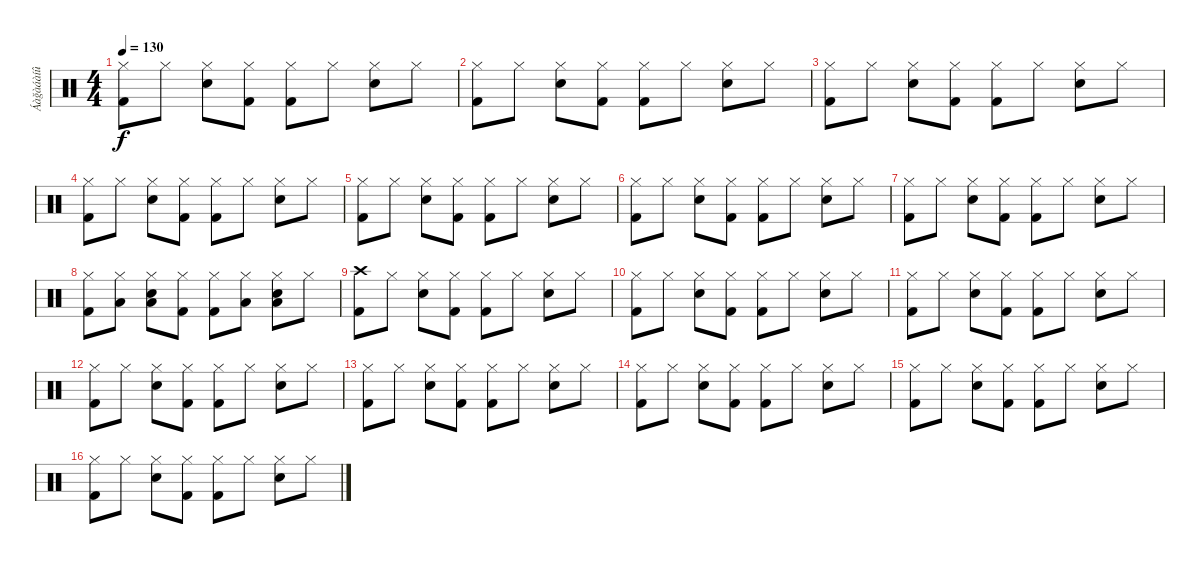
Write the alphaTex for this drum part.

\track ("Áàğàáàíû" "Áàğàáàíû") {instrument percussion}
\staff {score}
\articulation defaults
\ts (4 4)
\tempo 130
\clef neutral
\ks c
("Hi-Hat (closed)" "Kick (hit) 2").8{dy f} "Hi-Hat (closed)".8 ("Hi-Hat (closed)" "Snare (hit) 2").8 ("Hi-Hat (closed)" "Kick (hit) 2").8 ("Hi-Hat (closed)" "Kick (hit) 2").8 "Hi-Hat (closed)".8 ("Hi-Hat (closed)" "Snare (hit) 2").8 "Hi-Hat (closed)".8 |
("Hi-Hat (closed)" "Kick (hit) 2").8 "Hi-Hat (closed)".8 ("Hi-Hat (closed)" "Snare (hit) 2").8 ("Hi-Hat (closed)" "Kick (hit) 2").8 ("Hi-Hat (closed)" "Kick (hit) 2").8 "Hi-Hat (closed)".8 ("Hi-Hat (closed)" "Snare (hit) 2").8 "Hi-Hat (closed)".8 |
("Hi-Hat (closed)" "Kick (hit) 2").8 "Hi-Hat (closed)".8 ("Hi-Hat (closed)" "Snare (hit) 2").8 ("Hi-Hat (closed)" "Kick (hit) 2").8 ("Hi-Hat (closed)" "Kick (hit) 2").8 "Hi-Hat (closed)".8 ("Hi-Hat (closed)" "Snare (hit) 2").8 "Hi-Hat (closed)".8 |
("Hi-Hat (closed)" "Kick (hit) 2").8 "Hi-Hat (closed)".8 ("Hi-Hat (closed)" "Snare (hit) 2").8 ("Hi-Hat (closed)" "Kick (hit) 2").8 ("Hi-Hat (closed)" "Kick (hit) 2").8 "Hi-Hat (closed)".8 ("Hi-Hat (closed)" "Snare (hit) 2").8 "Hi-Hat (closed)".8 |
("Hi-Hat (closed)" "Kick (hit) 2").8 "Hi-Hat (closed)".8 ("Hi-Hat (closed)" "Snare (hit) 2").8 ("Hi-Hat (closed)" "Kick (hit) 2").8 ("Hi-Hat (closed)" "Kick (hit) 2").8 "Hi-Hat (closed)".8 ("Hi-Hat (closed)" "Snare (hit) 2").8 "Hi-Hat (closed)".8 |
("Hi-Hat (closed)" "Kick (hit) 2").8 "Hi-Hat (closed)".8 ("Hi-Hat (closed)" "Snare (hit) 2").8 ("Hi-Hat (closed)" "Kick (hit) 2").8 ("Hi-Hat (closed)" "Kick (hit) 2").8 "Hi-Hat (closed)".8 ("Hi-Hat (closed)" "Snare (hit) 2").8 "Hi-Hat (closed)".8 |
("Hi-Hat (closed)" "Kick (hit) 2").8 "Hi-Hat (closed)".8 ("Hi-Hat (closed)" "Snare (hit) 2").8 ("Hi-Hat (closed)" "Kick (hit) 2").8 ("Hi-Hat (closed)" "Kick (hit) 2").8 "Hi-Hat (closed)".8 ("Hi-Hat (closed)" "Snare (hit) 2").8 "Hi-Hat (closed)".8 |
("Hi-Hat (closed)" "Kick (hit) 2").8 ("Hi-Hat (closed)" "Low Tom (hit)").8 ("Hi-Hat (closed)" "Snare (hit) 2" "Low Tom (hit)").8 ("Hi-Hat (closed)" "Kick (hit) 2").8 ("Hi-Hat (closed)" "Kick (hit) 2").8 ("Hi-Hat (closed)" "Low Tom (hit)").8 ("Hi-Hat (closed)" "Snare (hit) 2" "Low Tom (hit)").8 "Hi-Hat (closed)".8 |
("Crash high (hit)" "Kick (hit) 2").8 "Hi-Hat (closed)".8 ("Hi-Hat (closed)" "Snare (hit) 2").8 ("Hi-Hat (closed)" "Kick (hit) 2").8 ("Hi-Hat (closed)" "Kick (hit) 2").8 "Hi-Hat (closed)".8 ("Hi-Hat (closed)" "Snare (hit) 2").8 "Hi-Hat (closed)".8 |
("Hi-Hat (closed)" "Kick (hit) 2").8 "Hi-Hat (closed)".8 ("Hi-Hat (closed)" "Snare (hit) 2").8 ("Hi-Hat (closed)" "Kick (hit) 2").8 ("Hi-Hat (closed)" "Kick (hit) 2").8 "Hi-Hat (closed)".8 ("Hi-Hat (closed)" "Snare (hit) 2").8 "Hi-Hat (closed)".8 |
("Hi-Hat (closed)" "Kick (hit) 2").8 "Hi-Hat (closed)".8 ("Hi-Hat (closed)" "Snare (hit) 2").8 ("Hi-Hat (closed)" "Kick (hit) 2").8 ("Hi-Hat (closed)" "Kick (hit) 2").8 "Hi-Hat (closed)".8 ("Hi-Hat (closed)" "Snare (hit) 2").8 "Hi-Hat (closed)".8 |
("Hi-Hat (closed)" "Kick (hit) 2").8 "Hi-Hat (closed)".8 ("Hi-Hat (closed)" "Snare (hit) 2").8 ("Hi-Hat (closed)" "Kick (hit) 2").8 ("Hi-Hat (closed)" "Kick (hit) 2").8 "Hi-Hat (closed)".8 ("Hi-Hat (closed)" "Snare (hit) 2").8 "Hi-Hat (closed)".8 |
("Hi-Hat (closed)" "Kick (hit) 2").8 "Hi-Hat (closed)".8 ("Hi-Hat (closed)" "Snare (hit) 2").8 ("Hi-Hat (closed)" "Kick (hit) 2").8 ("Hi-Hat (closed)" "Kick (hit) 2").8 "Hi-Hat (closed)".8 ("Hi-Hat (closed)" "Snare (hit) 2").8 "Hi-Hat (closed)".8 |
("Hi-Hat (closed)" "Kick (hit) 2").8 "Hi-Hat (closed)".8 ("Hi-Hat (closed)" "Snare (hit) 2").8 ("Hi-Hat (closed)" "Kick (hit) 2").8 ("Hi-Hat (closed)" "Kick (hit) 2").8 "Hi-Hat (closed)".8 ("Hi-Hat (closed)" "Snare (hit) 2").8 "Hi-Hat (closed)".8 |
("Hi-Hat (closed)" "Kick (hit) 2").8 "Hi-Hat (closed)".8 ("Hi-Hat (closed)" "Snare (hit) 2").8 ("Hi-Hat (closed)" "Kick (hit) 2").8 ("Hi-Hat (closed)" "Kick (hit) 2").8 "Hi-Hat (closed)".8 ("Hi-Hat (closed)" "Snare (hit) 2").8 "Hi-Hat (closed)".8 |
("Hi-Hat (closed)" "Kick (hit) 2").8 "Hi-Hat (closed)".8 ("Hi-Hat (closed)" "Snare (hit) 2").8 ("Hi-Hat (closed)" "Kick (hit) 2").8 ("Hi-Hat (closed)" "Kick (hit) 2").8 "Hi-Hat (closed)".8 ("Hi-Hat (closed)" "Snare (hit) 2").8 "Hi-Hat (closed)".8
